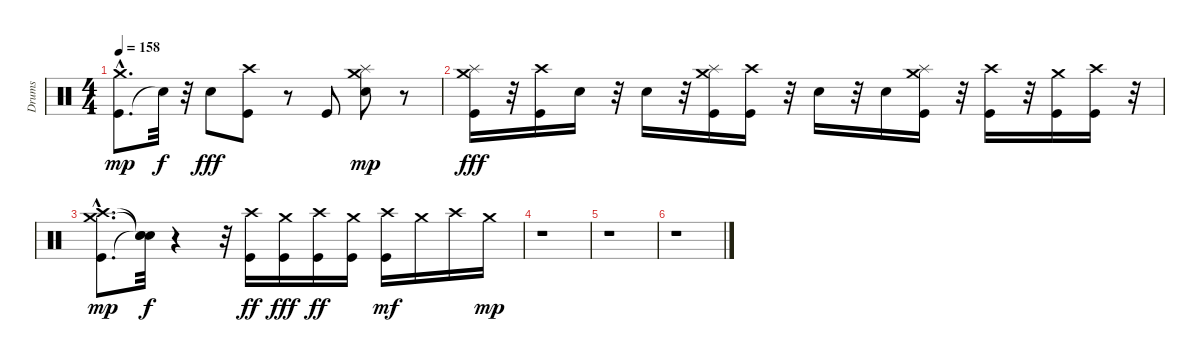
\track ("Drums" "Drums") {instrument percussion}
\staff {score}
\articulation defaults
\ts (4 4)
\tempo 158
\clef neutral
\ks c
("Kick (hit)"{hac} "Crash medium (hit)").8{d dy mp} "Snare (hit)"{t}.32{dy f} r.32 "Electric Snare (hit)".8{dy fff} ("Crash high (hit)" "Kick (hit)").8 r.8 "Kick (hit)".8 ("Electric Snare (hit)" "Crash medium (hit)" "Splash (hit)").8{dy mp} r.8 |
("Crash medium (hit)" "Splash (hit)" "Kick (hit)").16{dy fff} r.32 ("Crash high (hit)" "Kick (hit)").16 "Electric Snare (hit)".16 r.32 "Electric Snare (hit)".16 r.32 ("Crash medium (hit)" "Splash (hit)" "Kick (hit)").16 ("Crash high (hit)" "Kick (hit)").16 r.32 "Electric Snare (hit)".16 r.32 "Electric Snare (hit)".16 ("Crash medium (hit)" "Splash (hit)" "Kick (hit)").16 r.32 ("Crash high (hit)" "Kick (hit)").16 r.32 ("Crash medium (hit)" "Kick (hit)").16 ("Crash high (hit)" "Kick (hit)").16 r.32 |
("Kick (hit)"{hac} "Crash high (hit)"{hac} "Crash medium (hit)"{hac}).8{d dy mp} ("Snare (hit)"{t} "Snare (hit)"{t} "Snare (hit)"{t}).32{dy f} r.4 r.32 ("Crash high (hit)" "Kick (hit)").16{dy ff} ("Crash medium (hit)" "Kick (hit)").16{dy fff} ("Crash high (hit)" "Kick (hit)").16{dy ff} ("Crash medium (hit)" "Kick (hit)").16 ("Crash high (hit)" "Kick (hit)").16{dy mf} "Crash medium (hit)".16 "Crash high (hit)".16 "Crash medium (hit)".16{dy mp} |
r.1 |
r.1 |
r.1
